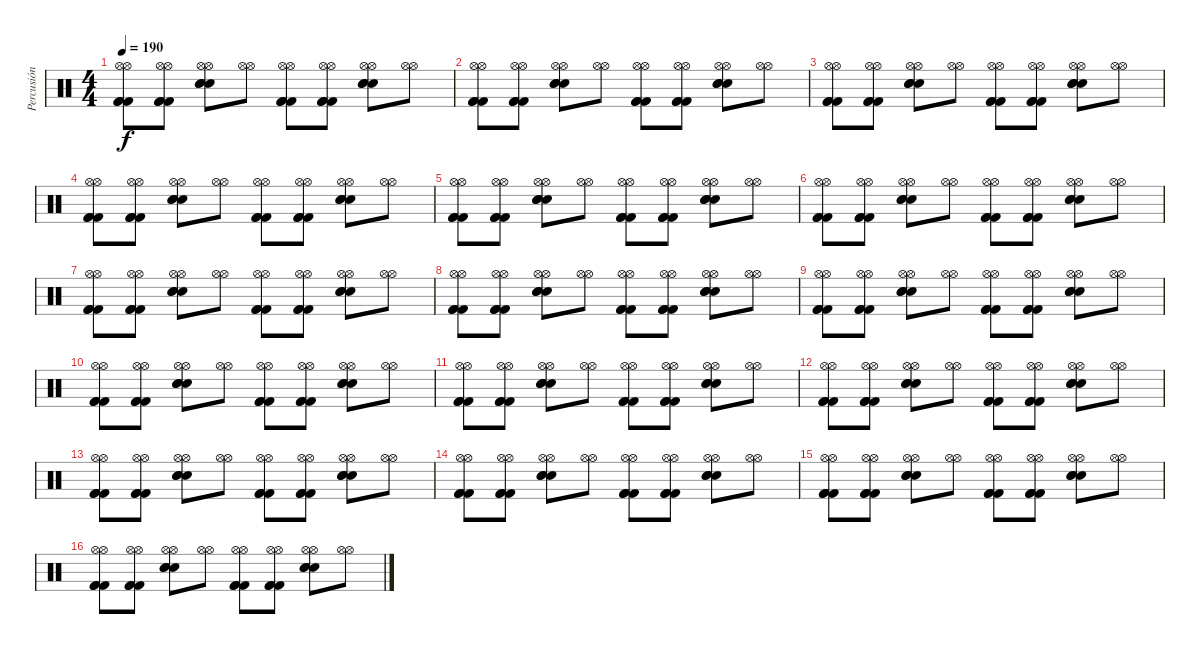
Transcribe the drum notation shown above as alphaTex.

\track ("Percusión" "Percusión") {instrument percussion}
\staff {score}
\articulation defaults
\ts (4 4)
\tempo 190
\clef neutral
\ks c
("Kick (hit) 2" "Kick (hit) 2" "Kick (hit) 2" "Hi-Hat (open)" "Hi-Hat (open)").8{dy f} ("Kick (hit) 2" "Kick (hit) 2" "Kick (hit) 2" "Hi-Hat (open)" "Hi-Hat (open)").8 ("Snare (hit) 2" "Snare (hit) 2" "Snare (hit) 2" "Hi-Hat (open)" "Hi-Hat (open)").8 ("Hi-Hat (open)" "Hi-Hat (open)").8 ("Kick (hit) 2" "Kick (hit) 2" "Kick (hit) 2" "Hi-Hat (open)" "Hi-Hat (open)").8 ("Kick (hit) 2" "Kick (hit) 2" "Kick (hit) 2" "Hi-Hat (open)" "Hi-Hat (open)").8 ("Snare (hit) 2" "Snare (hit) 2" "Snare (hit) 2" "Hi-Hat (open)" "Hi-Hat (open)").8 ("Hi-Hat (open)" "Hi-Hat (open)").8 |
("Kick (hit) 2" "Kick (hit) 2" "Kick (hit) 2" "Hi-Hat (open)" "Hi-Hat (open)").8 ("Kick (hit) 2" "Kick (hit) 2" "Kick (hit) 2" "Hi-Hat (open)" "Hi-Hat (open)").8 ("Snare (hit) 2" "Snare (hit) 2" "Snare (hit) 2" "Hi-Hat (open)" "Hi-Hat (open)").8 ("Hi-Hat (open)" "Hi-Hat (open)").8 ("Kick (hit) 2" "Kick (hit) 2" "Kick (hit) 2" "Hi-Hat (open)" "Hi-Hat (open)").8 ("Kick (hit) 2" "Kick (hit) 2" "Kick (hit) 2" "Hi-Hat (open)" "Hi-Hat (open)").8 ("Snare (hit) 2" "Snare (hit) 2" "Snare (hit) 2" "Hi-Hat (open)" "Hi-Hat (open)").8 ("Hi-Hat (open)" "Hi-Hat (open)").8 |
("Kick (hit) 2" "Kick (hit) 2" "Kick (hit) 2" "Hi-Hat (open)" "Hi-Hat (open)").8 ("Kick (hit) 2" "Kick (hit) 2" "Kick (hit) 2" "Hi-Hat (open)" "Hi-Hat (open)").8 ("Snare (hit) 2" "Snare (hit) 2" "Snare (hit) 2" "Hi-Hat (open)" "Hi-Hat (open)").8 ("Hi-Hat (open)" "Hi-Hat (open)").8 ("Kick (hit) 2" "Kick (hit) 2" "Kick (hit) 2" "Hi-Hat (open)" "Hi-Hat (open)").8 ("Kick (hit) 2" "Kick (hit) 2" "Kick (hit) 2" "Hi-Hat (open)" "Hi-Hat (open)").8 ("Snare (hit) 2" "Snare (hit) 2" "Snare (hit) 2" "Hi-Hat (open)" "Hi-Hat (open)").8 ("Hi-Hat (open)" "Hi-Hat (open)").8 |
("Kick (hit) 2" "Kick (hit) 2" "Kick (hit) 2" "Hi-Hat (open)" "Hi-Hat (open)").8 ("Kick (hit) 2" "Kick (hit) 2" "Kick (hit) 2" "Hi-Hat (open)" "Hi-Hat (open)").8 ("Snare (hit) 2" "Snare (hit) 2" "Snare (hit) 2" "Hi-Hat (open)" "Hi-Hat (open)").8 ("Hi-Hat (open)" "Hi-Hat (open)").8 ("Kick (hit) 2" "Kick (hit) 2" "Kick (hit) 2" "Hi-Hat (open)" "Hi-Hat (open)").8 ("Kick (hit) 2" "Kick (hit) 2" "Kick (hit) 2" "Hi-Hat (open)" "Hi-Hat (open)").8 ("Snare (hit) 2" "Snare (hit) 2" "Snare (hit) 2" "Hi-Hat (open)" "Hi-Hat (open)").8 ("Hi-Hat (open)" "Hi-Hat (open)").8 |
("Kick (hit) 2" "Kick (hit) 2" "Kick (hit) 2" "Hi-Hat (open)" "Hi-Hat (open)").8 ("Kick (hit) 2" "Kick (hit) 2" "Kick (hit) 2" "Hi-Hat (open)" "Hi-Hat (open)").8 ("Snare (hit) 2" "Snare (hit) 2" "Snare (hit) 2" "Hi-Hat (open)" "Hi-Hat (open)").8 ("Hi-Hat (open)" "Hi-Hat (open)").8 ("Kick (hit) 2" "Kick (hit) 2" "Kick (hit) 2" "Hi-Hat (open)" "Hi-Hat (open)").8 ("Kick (hit) 2" "Kick (hit) 2" "Kick (hit) 2" "Hi-Hat (open)" "Hi-Hat (open)").8 ("Snare (hit) 2" "Snare (hit) 2" "Snare (hit) 2" "Hi-Hat (open)" "Hi-Hat (open)").8 ("Hi-Hat (open)" "Hi-Hat (open)").8 |
("Kick (hit) 2" "Kick (hit) 2" "Kick (hit) 2" "Hi-Hat (open)" "Hi-Hat (open)").8 ("Kick (hit) 2" "Kick (hit) 2" "Kick (hit) 2" "Hi-Hat (open)" "Hi-Hat (open)").8 ("Snare (hit) 2" "Snare (hit) 2" "Snare (hit) 2" "Hi-Hat (open)" "Hi-Hat (open)").8 ("Hi-Hat (open)" "Hi-Hat (open)").8 ("Kick (hit) 2" "Kick (hit) 2" "Kick (hit) 2" "Hi-Hat (open)" "Hi-Hat (open)").8 ("Kick (hit) 2" "Kick (hit) 2" "Kick (hit) 2" "Hi-Hat (open)" "Hi-Hat (open)").8 ("Snare (hit) 2" "Snare (hit) 2" "Snare (hit) 2" "Hi-Hat (open)" "Hi-Hat (open)").8 ("Hi-Hat (open)" "Hi-Hat (open)").8 |
("Kick (hit) 2" "Kick (hit) 2" "Kick (hit) 2" "Hi-Hat (open)" "Hi-Hat (open)").8 ("Kick (hit) 2" "Kick (hit) 2" "Kick (hit) 2" "Hi-Hat (open)" "Hi-Hat (open)").8 ("Snare (hit) 2" "Snare (hit) 2" "Snare (hit) 2" "Hi-Hat (open)" "Hi-Hat (open)").8 ("Hi-Hat (open)" "Hi-Hat (open)").8 ("Kick (hit) 2" "Kick (hit) 2" "Kick (hit) 2" "Hi-Hat (open)" "Hi-Hat (open)").8 ("Kick (hit) 2" "Kick (hit) 2" "Kick (hit) 2" "Hi-Hat (open)" "Hi-Hat (open)").8 ("Snare (hit) 2" "Snare (hit) 2" "Snare (hit) 2" "Hi-Hat (open)" "Hi-Hat (open)").8 ("Hi-Hat (open)" "Hi-Hat (open)").8 |
("Kick (hit) 2" "Kick (hit) 2" "Kick (hit) 2" "Hi-Hat (open)" "Hi-Hat (open)").8 ("Kick (hit) 2" "Kick (hit) 2" "Kick (hit) 2" "Hi-Hat (open)" "Hi-Hat (open)").8 ("Snare (hit) 2" "Snare (hit) 2" "Snare (hit) 2" "Hi-Hat (open)" "Hi-Hat (open)").8 ("Hi-Hat (open)" "Hi-Hat (open)").8 ("Kick (hit) 2" "Kick (hit) 2" "Kick (hit) 2" "Hi-Hat (open)" "Hi-Hat (open)").8 ("Kick (hit) 2" "Kick (hit) 2" "Kick (hit) 2" "Hi-Hat (open)" "Hi-Hat (open)").8 ("Snare (hit) 2" "Snare (hit) 2" "Snare (hit) 2" "Hi-Hat (open)" "Hi-Hat (open)").8 ("Hi-Hat (open)" "Hi-Hat (open)").8 |
("Kick (hit) 2" "Kick (hit) 2" "Kick (hit) 2" "Hi-Hat (open)" "Hi-Hat (open)").8 ("Kick (hit) 2" "Kick (hit) 2" "Kick (hit) 2" "Hi-Hat (open)" "Hi-Hat (open)").8 ("Snare (hit) 2" "Snare (hit) 2" "Snare (hit) 2" "Hi-Hat (open)" "Hi-Hat (open)").8 ("Hi-Hat (open)" "Hi-Hat (open)").8 ("Kick (hit) 2" "Kick (hit) 2" "Kick (hit) 2" "Hi-Hat (open)" "Hi-Hat (open)").8 ("Kick (hit) 2" "Kick (hit) 2" "Kick (hit) 2" "Hi-Hat (open)" "Hi-Hat (open)").8 ("Snare (hit) 2" "Snare (hit) 2" "Snare (hit) 2" "Hi-Hat (open)" "Hi-Hat (open)").8 ("Hi-Hat (open)" "Hi-Hat (open)").8 |
("Kick (hit) 2" "Kick (hit) 2" "Kick (hit) 2" "Hi-Hat (open)" "Hi-Hat (open)").8 ("Kick (hit) 2" "Kick (hit) 2" "Kick (hit) 2" "Hi-Hat (open)" "Hi-Hat (open)").8 ("Snare (hit) 2" "Snare (hit) 2" "Snare (hit) 2" "Hi-Hat (open)" "Hi-Hat (open)").8 ("Hi-Hat (open)" "Hi-Hat (open)").8 ("Kick (hit) 2" "Kick (hit) 2" "Kick (hit) 2" "Hi-Hat (open)" "Hi-Hat (open)").8 ("Kick (hit) 2" "Kick (hit) 2" "Kick (hit) 2" "Hi-Hat (open)" "Hi-Hat (open)").8 ("Snare (hit) 2" "Snare (hit) 2" "Snare (hit) 2" "Hi-Hat (open)" "Hi-Hat (open)").8 ("Hi-Hat (open)" "Hi-Hat (open)").8 |
("Kick (hit) 2" "Kick (hit) 2" "Kick (hit) 2" "Hi-Hat (open)" "Hi-Hat (open)").8 ("Kick (hit) 2" "Kick (hit) 2" "Kick (hit) 2" "Hi-Hat (open)" "Hi-Hat (open)").8 ("Snare (hit) 2" "Snare (hit) 2" "Snare (hit) 2" "Hi-Hat (open)" "Hi-Hat (open)").8 ("Hi-Hat (open)" "Hi-Hat (open)").8 ("Kick (hit) 2" "Kick (hit) 2" "Kick (hit) 2" "Hi-Hat (open)" "Hi-Hat (open)").8 ("Kick (hit) 2" "Kick (hit) 2" "Kick (hit) 2" "Hi-Hat (open)" "Hi-Hat (open)").8 ("Snare (hit) 2" "Snare (hit) 2" "Snare (hit) 2" "Hi-Hat (open)" "Hi-Hat (open)").8 ("Hi-Hat (open)" "Hi-Hat (open)").8 |
("Kick (hit) 2" "Kick (hit) 2" "Kick (hit) 2" "Hi-Hat (open)" "Hi-Hat (open)").8 ("Kick (hit) 2" "Kick (hit) 2" "Kick (hit) 2" "Hi-Hat (open)" "Hi-Hat (open)").8 ("Snare (hit) 2" "Snare (hit) 2" "Snare (hit) 2" "Hi-Hat (open)" "Hi-Hat (open)").8 ("Hi-Hat (open)" "Hi-Hat (open)").8 ("Kick (hit) 2" "Kick (hit) 2" "Kick (hit) 2" "Hi-Hat (open)" "Hi-Hat (open)").8 ("Kick (hit) 2" "Kick (hit) 2" "Kick (hit) 2" "Hi-Hat (open)" "Hi-Hat (open)").8 ("Snare (hit) 2" "Snare (hit) 2" "Snare (hit) 2" "Hi-Hat (open)" "Hi-Hat (open)").8 ("Hi-Hat (open)" "Hi-Hat (open)").8 |
("Kick (hit) 2" "Kick (hit) 2" "Kick (hit) 2" "Hi-Hat (open)" "Hi-Hat (open)").8 ("Kick (hit) 2" "Kick (hit) 2" "Kick (hit) 2" "Hi-Hat (open)" "Hi-Hat (open)").8 ("Snare (hit) 2" "Snare (hit) 2" "Snare (hit) 2" "Hi-Hat (open)" "Hi-Hat (open)").8 ("Hi-Hat (open)" "Hi-Hat (open)").8 ("Kick (hit) 2" "Kick (hit) 2" "Kick (hit) 2" "Hi-Hat (open)" "Hi-Hat (open)").8 ("Kick (hit) 2" "Kick (hit) 2" "Kick (hit) 2" "Hi-Hat (open)" "Hi-Hat (open)").8 ("Snare (hit) 2" "Snare (hit) 2" "Snare (hit) 2" "Hi-Hat (open)" "Hi-Hat (open)").8 ("Hi-Hat (open)" "Hi-Hat (open)").8 |
("Kick (hit) 2" "Kick (hit) 2" "Kick (hit) 2" "Hi-Hat (open)" "Hi-Hat (open)").8 ("Kick (hit) 2" "Kick (hit) 2" "Kick (hit) 2" "Hi-Hat (open)" "Hi-Hat (open)").8 ("Snare (hit) 2" "Snare (hit) 2" "Snare (hit) 2" "Hi-Hat (open)" "Hi-Hat (open)").8 ("Hi-Hat (open)" "Hi-Hat (open)").8 ("Kick (hit) 2" "Kick (hit) 2" "Kick (hit) 2" "Hi-Hat (open)" "Hi-Hat (open)").8 ("Kick (hit) 2" "Kick (hit) 2" "Kick (hit) 2" "Hi-Hat (open)" "Hi-Hat (open)").8 ("Snare (hit) 2" "Snare (hit) 2" "Snare (hit) 2" "Hi-Hat (open)" "Hi-Hat (open)").8 ("Hi-Hat (open)" "Hi-Hat (open)").8 |
("Kick (hit) 2" "Kick (hit) 2" "Kick (hit) 2" "Hi-Hat (open)" "Hi-Hat (open)").8 ("Kick (hit) 2" "Kick (hit) 2" "Kick (hit) 2" "Hi-Hat (open)" "Hi-Hat (open)").8 ("Snare (hit) 2" "Snare (hit) 2" "Snare (hit) 2" "Hi-Hat (open)" "Hi-Hat (open)").8 ("Hi-Hat (open)" "Hi-Hat (open)").8 ("Kick (hit) 2" "Kick (hit) 2" "Kick (hit) 2" "Hi-Hat (open)" "Hi-Hat (open)").8 ("Kick (hit) 2" "Kick (hit) 2" "Kick (hit) 2" "Hi-Hat (open)" "Hi-Hat (open)").8 ("Snare (hit) 2" "Snare (hit) 2" "Snare (hit) 2" "Hi-Hat (open)" "Hi-Hat (open)").8 ("Hi-Hat (open)" "Hi-Hat (open)").8 |
("Kick (hit) 2" "Kick (hit) 2" "Kick (hit) 2" "Hi-Hat (open)" "Hi-Hat (open)").8 ("Kick (hit) 2" "Kick (hit) 2" "Kick (hit) 2" "Hi-Hat (open)" "Hi-Hat (open)").8 ("Snare (hit) 2" "Snare (hit) 2" "Snare (hit) 2" "Hi-Hat (open)" "Hi-Hat (open)").8 ("Hi-Hat (open)" "Hi-Hat (open)").8 ("Kick (hit) 2" "Kick (hit) 2" "Kick (hit) 2" "Hi-Hat (open)" "Hi-Hat (open)").8 ("Kick (hit) 2" "Kick (hit) 2" "Kick (hit) 2" "Hi-Hat (open)" "Hi-Hat (open)").8 ("Snare (hit) 2" "Snare (hit) 2" "Snare (hit) 2" "Hi-Hat (open)" "Hi-Hat (open)").8 ("Hi-Hat (open)" "Hi-Hat (open)").8
